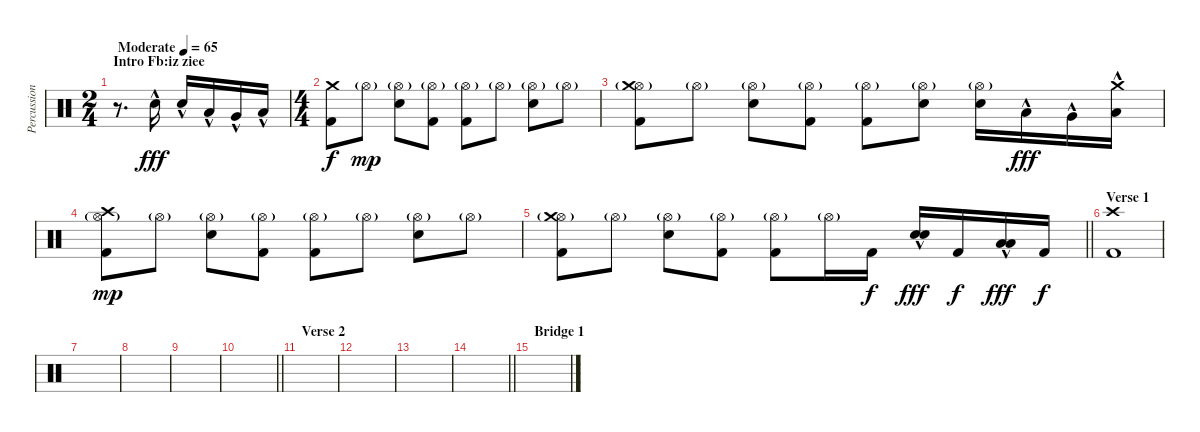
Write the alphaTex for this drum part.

\track ("Percussion" "Percussion") {instrument percussion}
\staff {score}
\articulation defaults
\ts (2 4)
\section ("" "Intro Fb:iz ziee")
\tempo (65 "Moderate")
\clef neutral
\ks c
r.8{d dy fff} "Electric Snare (hit)"{hac}.16 "Electric Snare (hit)"{hac}.16 "Low Tom (hit)"{hac}.16 "Very Low Tom (hit)"{hac}.16 "Low Floor Tom (hit)"{hac}.16 |
\ts (4 4)
("Crash medium (hit)" "Kick (hit) 2").8{dy f} "Hi-Hat (open)"{g}.8{dy mp} ("Hi-Hat (open)"{g} "Electric Snare (hit)").8 ("Hi-Hat (open)"{g} "Kick (hit) 2").8 ("Hi-Hat (open)"{g} "Kick (hit) 2").8 "Hi-Hat (open)"{g}.8 ("Hi-Hat (open)"{g} "Electric Snare (hit)").8 "Hi-Hat (open)"{g}.8 |
("Hi-Hat (open)"{g} "Crash medium (hit)" "Kick (hit) 2").8 "Hi-Hat (open)"{g}.8 ("Hi-Hat (open)"{g} "Electric Snare (hit)").8 ("Hi-Hat (open)"{g} "Kick (hit) 2").8 ("Hi-Hat (open)"{g} "Kick (hit) 2").8 ("Hi-Hat (open)"{g} "Electric Snare (hit)").8 ("Hi-Hat (open)"{g} "Electric Snare (hit)").16 "Low Tom (hit)"{hac}.16{dy fff} "Very Low Tom (hit)"{hac}.16 ("Crash medium (hit)" "Low Floor Tom (hit)"{hac}).16 |
("Hi-Hat (open)"{g} "Crash high (hit)" "Kick (hit) 2").8{dy mp} "Hi-Hat (open)"{g}.8 ("Hi-Hat (open)"{g} "Electric Snare (hit)").8 ("Hi-Hat (open)"{g} "Kick (hit) 2").8 ("Hi-Hat (open)"{g} "Kick (hit) 2").8 "Hi-Hat (open)"{g}.8 ("Hi-Hat (open)"{g} "Electric Snare (hit)").8 "Hi-Hat (open)"{g}.8 |
\barLineRight lightlight
("Hi-Hat (open)"{g} "Crash medium (hit)" "Kick (hit) 2").8 "Hi-Hat (open)"{g}.8 ("Hi-Hat (open)"{g} "Electric Snare (hit)").8 ("Hi-Hat (open)"{g} "Kick (hit) 2").8 ("Hi-Hat (open)"{g} "Kick (hit) 2").8 "Hi-Hat (open)"{g}.16 "Kick (hit) 2".16{dy f} ("Electric Snare (hit)"{hac} "Electric Snare (hit)"{hac}).16{bd 120 dy fff} "Kick (hit) 2".16{dy f} ("Low Tom (hit)"{hac} "Low Tom (hit)"{hac}).16{bd 120 dy fff} "Kick (hit) 2".16{dy f} |
\section ("" "Verse 1")
("Crash high (hit)" "Kick (hit) 2").1 |
|
|
|
\barLineRight lightlight
|
\section ("" "Verse 2")
|
|
|
\barLineRight lightlight
|
\section ("" "Bridge 1")
